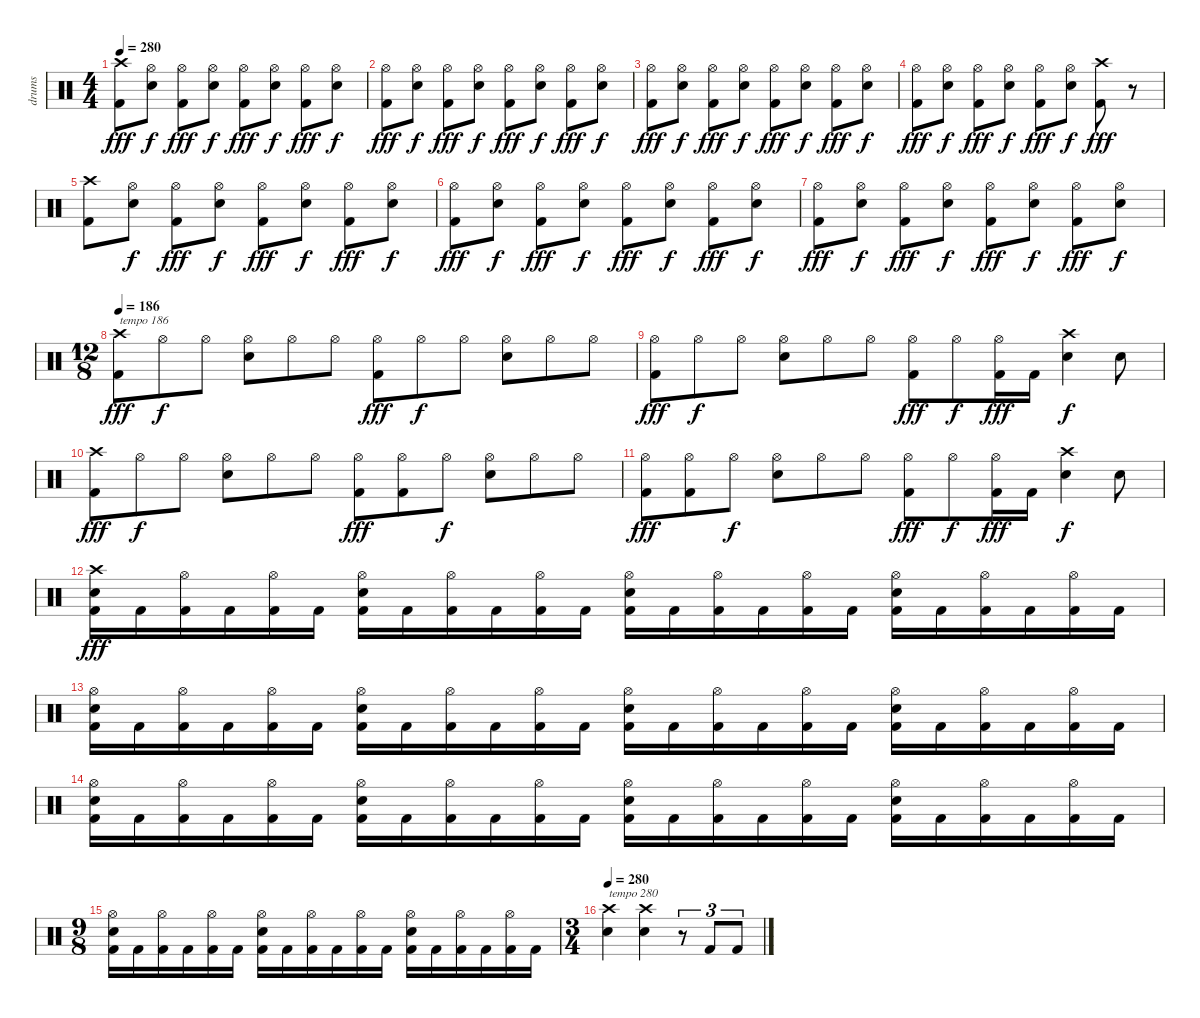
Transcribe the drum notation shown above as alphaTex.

\track ("drums" "drums") {instrument percussion}
\staff {score}
\articulation defaults
\ts (4 4)
\tempo 280
\clef neutral
\ks c
("Crash high (hit)" "Kick (hit) 2").8{dy fff} ("Hi-Hat (open)" "Snare (hit) 2").8{dy f} ("Hi-Hat (open)" "Kick (hit) 2").8{dy fff} ("Hi-Hat (open)" "Snare (hit) 2").8{dy f} ("Hi-Hat (open)" "Kick (hit) 2").8{dy fff} ("Hi-Hat (open)" "Snare (hit) 2").8{dy f} ("Hi-Hat (open)" "Kick (hit) 2").8{dy fff} ("Hi-Hat (open)" "Snare (hit) 2").8{dy f} |
("Hi-Hat (open)" "Kick (hit) 2").8{dy fff} ("Hi-Hat (open)" "Snare (hit) 2").8{dy f} ("Hi-Hat (open)" "Kick (hit) 2").8{dy fff} ("Hi-Hat (open)" "Snare (hit) 2").8{dy f} ("Hi-Hat (open)" "Kick (hit) 2").8{dy fff} ("Hi-Hat (open)" "Snare (hit) 2").8{dy f} ("Hi-Hat (open)" "Kick (hit) 2").8{dy fff} ("Hi-Hat (open)" "Snare (hit) 2").8{dy f} |
("Hi-Hat (open)" "Kick (hit) 2").8{dy fff} ("Hi-Hat (open)" "Snare (hit) 2").8{dy f} ("Hi-Hat (open)" "Kick (hit) 2").8{dy fff} ("Hi-Hat (open)" "Snare (hit) 2").8{dy f} ("Hi-Hat (open)" "Kick (hit) 2").8{dy fff} ("Hi-Hat (open)" "Snare (hit) 2").8{dy f} ("Hi-Hat (open)" "Kick (hit) 2").8{dy fff} ("Hi-Hat (open)" "Snare (hit) 2").8{dy f} |
("Hi-Hat (open)" "Kick (hit) 2").8{dy fff} ("Hi-Hat (open)" "Snare (hit) 2").8{dy f} ("Hi-Hat (open)" "Kick (hit) 2").8{dy fff} ("Hi-Hat (open)" "Snare (hit) 2").8{dy f} ("Hi-Hat (open)" "Kick (hit) 2").8{dy fff} ("Hi-Hat (open)" "Snare (hit) 2").8{dy f} ("Crash high (hit)" "Kick (hit) 2").8{dy fff} r.8 |
("Crash high (hit)" "Kick (hit) 2").8 ("Hi-Hat (open)" "Snare (hit) 2").8{dy f} ("Hi-Hat (open)" "Kick (hit) 2").8{dy fff} ("Hi-Hat (open)" "Snare (hit) 2").8{dy f} ("Hi-Hat (open)" "Kick (hit) 2").8{dy fff} ("Hi-Hat (open)" "Snare (hit) 2").8{dy f} ("Hi-Hat (open)" "Kick (hit) 2").8{dy fff} ("Hi-Hat (open)" "Snare (hit) 2").8{dy f} |
("Hi-Hat (open)" "Kick (hit) 2").8{dy fff} ("Hi-Hat (open)" "Snare (hit) 2").8{dy f} ("Hi-Hat (open)" "Kick (hit) 2").8{dy fff} ("Hi-Hat (open)" "Snare (hit) 2").8{dy f} ("Hi-Hat (open)" "Kick (hit) 2").8{dy fff} ("Hi-Hat (open)" "Snare (hit) 2").8{dy f} ("Hi-Hat (open)" "Kick (hit) 2").8{dy fff} ("Hi-Hat (open)" "Snare (hit) 2").8{dy f} |
("Hi-Hat (open)" "Kick (hit) 2").8{dy fff} ("Hi-Hat (open)" "Snare (hit) 2").8{dy f} ("Hi-Hat (open)" "Kick (hit) 2").8{dy fff} ("Hi-Hat (open)" "Snare (hit) 2").8{dy f} ("Hi-Hat (open)" "Kick (hit) 2").8{dy fff} ("Hi-Hat (open)" "Snare (hit) 2").8{dy f} ("Hi-Hat (open)" "Kick (hit) 2").8{dy fff} ("Hi-Hat (open)" "Snare (hit) 2").8{dy f} |
\ts (12 8)
\tempo 186
("Crash high (hit)" "Kick (hit) 2").8{txt "tempo 186" dy fff} "Hi-Hat (open)".8{dy f} "Hi-Hat (open)".8 ("Hi-Hat (open)" "Snare (hit) 2").8 "Hi-Hat (open)".8 "Hi-Hat (open)".8 ("Hi-Hat (open)" "Kick (hit) 2").8{dy fff} "Hi-Hat (open)".8{dy f} "Hi-Hat (open)".8 ("Hi-Hat (open)" "Snare (hit) 2").8 "Hi-Hat (open)".8 "Hi-Hat (open)".8 |
("Hi-Hat (open)" "Kick (hit) 2").8{dy fff} "Hi-Hat (open)".8{dy f} "Hi-Hat (open)".8 ("Hi-Hat (open)" "Snare (hit) 2").8 "Hi-Hat (open)".8 "Hi-Hat (open)".8 ("Hi-Hat (open)" "Kick (hit) 2").8{dy fff} "Hi-Hat (open)".8{dy f} ("Hi-Hat (open)" "Kick (hit) 2").16{dy fff} "Kick (hit) 2".16 ("Crash high (hit)" "Snare (hit) 2").4{dy f} "Snare (hit) 2".8 |
("Crash high (hit)" "Kick (hit) 2").8{dy fff} "Hi-Hat (open)".8{dy f} "Hi-Hat (open)".8 ("Hi-Hat (open)" "Snare (hit) 2").8 "Hi-Hat (open)".8 "Hi-Hat (open)".8 ("Hi-Hat (open)" "Kick (hit) 2").8{dy fff} ("Hi-Hat (open)" "Kick (hit) 2").8 "Hi-Hat (open)".8{dy f} ("Hi-Hat (open)" "Snare (hit) 2").8 "Hi-Hat (open)".8 "Hi-Hat (open)".8 |
("Hi-Hat (open)" "Kick (hit) 2").8{dy fff} ("Hi-Hat (open)" "Kick (hit) 2").8 "Hi-Hat (open)".8{dy f} ("Hi-Hat (open)" "Snare (hit) 2").8 "Hi-Hat (open)".8 "Hi-Hat (open)".8 ("Hi-Hat (open)" "Kick (hit) 2").8{dy fff} "Hi-Hat (open)".8{dy f} ("Hi-Hat (open)" "Kick (hit) 2").16{dy fff} "Kick (hit) 2".16 ("Crash high (hit)" "Snare (hit) 2").4{dy f} "Snare (hit) 2".8 |
("Crash high (hit)" "Snare (hit) 2" "Kick (hit) 2").16{dy fff} "Kick (hit) 2".16 ("Hi-Hat (open)" "Kick (hit) 2").16 "Kick (hit) 2".16 ("Hi-Hat (open)" "Kick (hit) 2").16 "Kick (hit) 2".16 ("Hi-Hat (open)" "Snare (hit) 2" "Kick (hit) 2").16 "Kick (hit) 2".16 ("Hi-Hat (open)" "Kick (hit) 2").16 "Kick (hit) 2".16 ("Hi-Hat (open)" "Kick (hit) 2").16 "Kick (hit) 2".16 ("Hi-Hat (open)" "Snare (hit) 2" "Kick (hit) 2").16 "Kick (hit) 2".16 ("Hi-Hat (open)" "Kick (hit) 2").16 "Kick (hit) 2".16 ("Hi-Hat (open)" "Kick (hit) 2").16 "Kick (hit) 2".16 ("Hi-Hat (open)" "Snare (hit) 2" "Kick (hit) 2").16 "Kick (hit) 2".16 ("Hi-Hat (open)" "Kick (hit) 2").16 "Kick (hit) 2".16 ("Hi-Hat (open)" "Kick (hit) 2").16 "Kick (hit) 2".16 |
("Hi-Hat (open)" "Snare (hit) 2" "Kick (hit) 2").16 "Kick (hit) 2".16 ("Hi-Hat (open)" "Kick (hit) 2").16 "Kick (hit) 2".16 ("Hi-Hat (open)" "Kick (hit) 2").16 "Kick (hit) 2".16 ("Hi-Hat (open)" "Snare (hit) 2" "Kick (hit) 2").16 "Kick (hit) 2".16 ("Hi-Hat (open)" "Kick (hit) 2").16 "Kick (hit) 2".16 ("Hi-Hat (open)" "Kick (hit) 2").16 "Kick (hit) 2".16 ("Hi-Hat (open)" "Snare (hit) 2" "Kick (hit) 2").16 "Kick (hit) 2".16 ("Hi-Hat (open)" "Kick (hit) 2").16 "Kick (hit) 2".16 ("Hi-Hat (open)" "Kick (hit) 2").16 "Kick (hit) 2".16 ("Hi-Hat (open)" "Snare (hit) 2" "Kick (hit) 2").16 "Kick (hit) 2".16 ("Hi-Hat (open)" "Kick (hit) 2").16 "Kick (hit) 2".16 ("Hi-Hat (open)" "Kick (hit) 2").16 "Kick (hit) 2".16 |
("Hi-Hat (open)" "Snare (hit) 2" "Kick (hit) 2").16 "Kick (hit) 2".16 ("Hi-Hat (open)" "Kick (hit) 2").16 "Kick (hit) 2".16 ("Hi-Hat (open)" "Kick (hit) 2").16 "Kick (hit) 2".16 ("Hi-Hat (open)" "Snare (hit) 2" "Kick (hit) 2").16 "Kick (hit) 2".16 ("Hi-Hat (open)" "Kick (hit) 2").16 "Kick (hit) 2".16 ("Hi-Hat (open)" "Kick (hit) 2").16 "Kick (hit) 2".16 ("Hi-Hat (open)" "Snare (hit) 2" "Kick (hit) 2").16 "Kick (hit) 2".16 ("Hi-Hat (open)" "Kick (hit) 2").16 "Kick (hit) 2".16 ("Hi-Hat (open)" "Kick (hit) 2").16 "Kick (hit) 2".16 ("Hi-Hat (open)" "Snare (hit) 2" "Kick (hit) 2").16 "Kick (hit) 2".16 ("Hi-Hat (open)" "Kick (hit) 2").16 "Kick (hit) 2".16 ("Hi-Hat (open)" "Kick (hit) 2").16 "Kick (hit) 2".16 |
\ts (9 8)
("Hi-Hat (open)" "Snare (hit) 2" "Kick (hit) 2").16 "Kick (hit) 2".16 ("Hi-Hat (open)" "Kick (hit) 2").16 "Kick (hit) 2".16 ("Hi-Hat (open)" "Kick (hit) 2").16 "Kick (hit) 2".16 ("Hi-Hat (open)" "Snare (hit) 2" "Kick (hit) 2").16 "Kick (hit) 2".16 ("Hi-Hat (open)" "Kick (hit) 2").16 "Kick (hit) 2".16 ("Hi-Hat (open)" "Kick (hit) 2").16 "Kick (hit) 2".16 ("Hi-Hat (open)" "Snare (hit) 2" "Kick (hit) 2").16 "Kick (hit) 2".16 ("Hi-Hat (open)" "Kick (hit) 2").16 "Kick (hit) 2".16 ("Hi-Hat (open)" "Kick (hit) 2").16 "Kick (hit) 2".16 |
\ts (3 4)
\tempo 280
("Crash high (hit)" "Snare (hit) 2").4{txt "tempo 280"} ("Crash high (hit)" "Snare (hit) 2").4 r.8{tu (3 2)} "Kick (hit) 2".8{tu (3 2)} "Kick (hit) 2".8{tu (3 2)}
